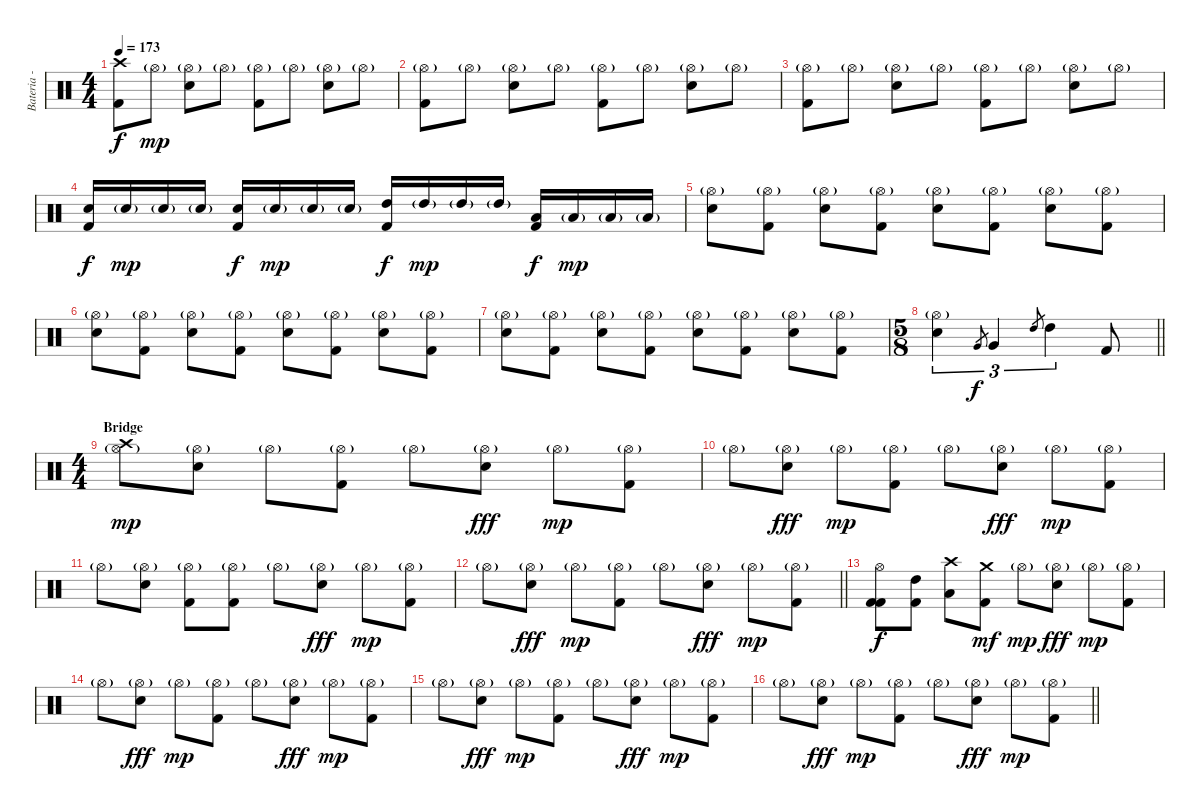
\track ("Bateria - Larzon " "Bateria - ") {instrument percussion}
\staff {score}
\articulation defaults
\ts (4 4)
\tempo 173
\clef neutral
\ks c
("Kick (hit) 2" "Crash high (hit)").8{dy f} "Hi-Hat (open)"{g}.8{dy mp} ("Hi-Hat (open)"{g} "Electric Snare (hit)").8 "Hi-Hat (open)"{g}.8 ("Kick (hit) 2" "Hi-Hat (open)"{g}).8 "Hi-Hat (open)"{g}.8 ("Hi-Hat (open)"{g} "Electric Snare (hit)").8 "Hi-Hat (open)"{g}.8 |
("Kick (hit) 2" "Hi-Hat (open)"{g}).8 "Hi-Hat (open)"{g}.8 ("Hi-Hat (open)"{g} "Electric Snare (hit)").8 "Hi-Hat (open)"{g}.8 ("Kick (hit) 2" "Hi-Hat (open)"{g}).8 "Hi-Hat (open)"{g}.8 ("Hi-Hat (open)"{g} "Electric Snare (hit)").8 "Hi-Hat (open)"{g}.8 |
("Kick (hit) 2" "Hi-Hat (open)"{g}).8 "Hi-Hat (open)"{g}.8 ("Hi-Hat (open)"{g} "Electric Snare (hit)").8 "Hi-Hat (open)"{g}.8 ("Kick (hit) 2" "Hi-Hat (open)"{g}).8 "Hi-Hat (open)"{g}.8 ("Hi-Hat (open)"{g} "Electric Snare (hit)").8 "Hi-Hat (open)"{g}.8 |
("Electric Snare (hit)" "Kick (hit) 2").16{dy f} "Electric Snare (hit)"{g}.16{dy mp} "Electric Snare (hit)"{g}.16 "Electric Snare (hit)"{g}.16 ("Electric Snare (hit)" "Kick (hit) 2").16{dy f} "Electric Snare (hit)"{g}.16{dy mp} "Electric Snare (hit)"{g}.16 "Electric Snare (hit)"{g}.16 ("High Tom (hit)" "Kick (hit) 2").16{dy f} "High Tom (hit)"{g}.16{dy mp} "High Tom (hit)"{g}.16 "High Tom (hit)"{g}.16 ("Low Tom (hit)" "Kick (hit) 2").16{dy f} "Low Tom (hit)"{g}.16{dy mp} "Low Tom (hit)"{g}.16 "Low Tom (hit)"{g}.16 |
("Electric Snare (hit)" "Hi-Hat (open)"{g}).8 ("Kick (hit) 2" "Hi-Hat (open)"{g}).8 ("Electric Snare (hit)" "Hi-Hat (open)"{g}).8 ("Kick (hit) 2" "Hi-Hat (open)"{g}).8 ("Electric Snare (hit)" "Hi-Hat (open)"{g}).8 ("Kick (hit) 2" "Hi-Hat (open)"{g}).8 ("Electric Snare (hit)" "Hi-Hat (open)"{g}).8 ("Kick (hit) 2" "Hi-Hat (open)"{g}).8 |
("Electric Snare (hit)" "Hi-Hat (open)"{g}).8 ("Kick (hit) 2" "Hi-Hat (open)"{g}).8 ("Electric Snare (hit)" "Hi-Hat (open)"{g}).8 ("Kick (hit) 2" "Hi-Hat (open)"{g}).8 ("Electric Snare (hit)" "Hi-Hat (open)"{g}).8 ("Kick (hit) 2" "Hi-Hat (open)"{g}).8 ("Electric Snare (hit)" "Hi-Hat (open)"{g}).8 ("Kick (hit) 2" "Hi-Hat (open)"{g}).8 |
("Electric Snare (hit)" "Hi-Hat (open)"{g}).8 ("Kick (hit) 2" "Hi-Hat (open)"{g}).8 ("Electric Snare (hit)" "Hi-Hat (open)"{g}).8 ("Kick (hit) 2" "Hi-Hat (open)"{g}).8 ("Electric Snare (hit)" "Hi-Hat (open)"{g}).8 ("Kick (hit) 2" "Hi-Hat (open)"{g}).8 ("Electric Snare (hit)" "Hi-Hat (open)"{g}).8 ("Kick (hit) 2" "Hi-Hat (open)"{g}).8 |
\ts (5 8)
\barLineRight lightlight
("Electric Snare (hit)" "Hi-Hat (open)"{g}).4{tu (3 2)} "Very Low Tom (hit)".8{gr dy f} "Very Low Tom (hit)".4{tu (3 2)} "High Tom (hit)".8{gr} "High Tom (hit)".4{tu (3 2)} "Kick (hit) 2".8 |
\ts (4 4)
\section ("" "Bridge")
("Hi-Hat (open)"{g} "Crash high (hit)").8{dy mp} ("Hi-Hat (open)"{g} "Electric Snare (hit)").8 "Hi-Hat (open)"{g}.8 ("Kick (hit) 2" "Hi-Hat (open)"{g}).8 "Hi-Hat (open)"{g}.8 ("Hi-Hat (open)"{g} "Electric Snare (hit)").8{dy fff} "Hi-Hat (open)"{g}.8{dy mp} ("Kick (hit) 2" "Hi-Hat (open)"{g}).8 |
"Hi-Hat (open)"{g}.8 ("Hi-Hat (open)"{g} "Electric Snare (hit)").8{dy fff} "Hi-Hat (open)"{g}.8{dy mp} ("Kick (hit) 2" "Hi-Hat (open)"{g}).8 "Hi-Hat (open)"{g}.8 ("Hi-Hat (open)"{g} "Electric Snare (hit)").8{dy fff} "Hi-Hat (open)"{g}.8{dy mp} ("Kick (hit) 2" "Hi-Hat (open)"{g}).8 |
"Hi-Hat (open)"{g}.8 ("Hi-Hat (open)"{g} "Electric Snare (hit)").8 ("Kick (hit) 2" "Hi-Hat (open)"{g}).8 ("Kick (hit) 2" "Hi-Hat (open)"{g}).8 "Hi-Hat (open)"{g}.8 ("Hi-Hat (open)"{g} "Electric Snare (hit)").8{dy fff} "Hi-Hat (open)"{g}.8{dy mp} ("Kick (hit) 2" "Hi-Hat (open)"{g}).8 |
\barLineRight lightlight "Hi-Hat (open)"{g}.8
("Hi-Hat (open)"{g} "Electric Snare (hit)").8{dy fff} "Hi-Hat (open)"{g}.8{dy mp} ("Kick (hit) 2" "Hi-Hat (open)"{g}).8 "Hi-Hat (open)"{g}.8 ("Hi-Hat (open)"{g} "Electric Snare (hit)").8{dy fff} "Hi-Hat (open)"{g}.8{dy mp} ("Kick (hit) 2" "Hi-Hat (open)"{g}).8 |
("Kick (hit) 2" "Kick (hit) 2" "Hi-Hat (open)").8{dy f} ("High Tom (hit)" "Kick (hit) 2").8 ("Low Tom (hit)" "Crash high (hit)").8 ("Kick (hit) 2" "Crash medium (hit)").8{dy mf} "Hi-Hat (open)"{g}.8{dy mp} ("Hi-Hat (open)"{g} "Electric Snare (hit)").8{dy fff} "Hi-Hat (open)"{g}.8{dy mp} ("Kick (hit) 2" "Hi-Hat (open)"{g}).8 |
"Hi-Hat (open)"{g}.8 ("Hi-Hat (open)"{g} "Electric Snare (hit)").8{dy fff} "Hi-Hat (open)"{g}.8{dy mp} ("Kick (hit) 2" "Hi-Hat (open)"{g}).8 "Hi-Hat (open)"{g}.8 ("Hi-Hat (open)"{g} "Electric Snare (hit)").8{dy fff} "Hi-Hat (open)"{g}.8{dy mp} ("Kick (hit) 2" "Hi-Hat (open)"{g}).8 |
"Hi-Hat (open)"{g}.8 ("Hi-Hat (open)"{g} "Electric Snare (hit)").8{dy fff} "Hi-Hat (open)"{g}.8{dy mp} ("Kick (hit) 2" "Hi-Hat (open)"{g}).8 "Hi-Hat (open)"{g}.8 ("Hi-Hat (open)"{g} "Electric Snare (hit)").8{dy fff} "Hi-Hat (open)"{g}.8{dy mp} ("Kick (hit) 2" "Hi-Hat (open)"{g}).8 |
\barLineRight lightlight "Hi-Hat (open)"{g}.8
("Hi-Hat (open)"{g} "Electric Snare (hit)").8{dy fff} "Hi-Hat (open)"{g}.8{dy mp} ("Kick (hit) 2" "Hi-Hat (open)"{g}).8 "Hi-Hat (open)"{g}.8 ("Hi-Hat (open)"{g} "Electric Snare (hit)").8{dy fff} "Hi-Hat (open)"{g}.8{dy mp} ("Kick (hit) 2" "Hi-Hat (open)"{g}).8
